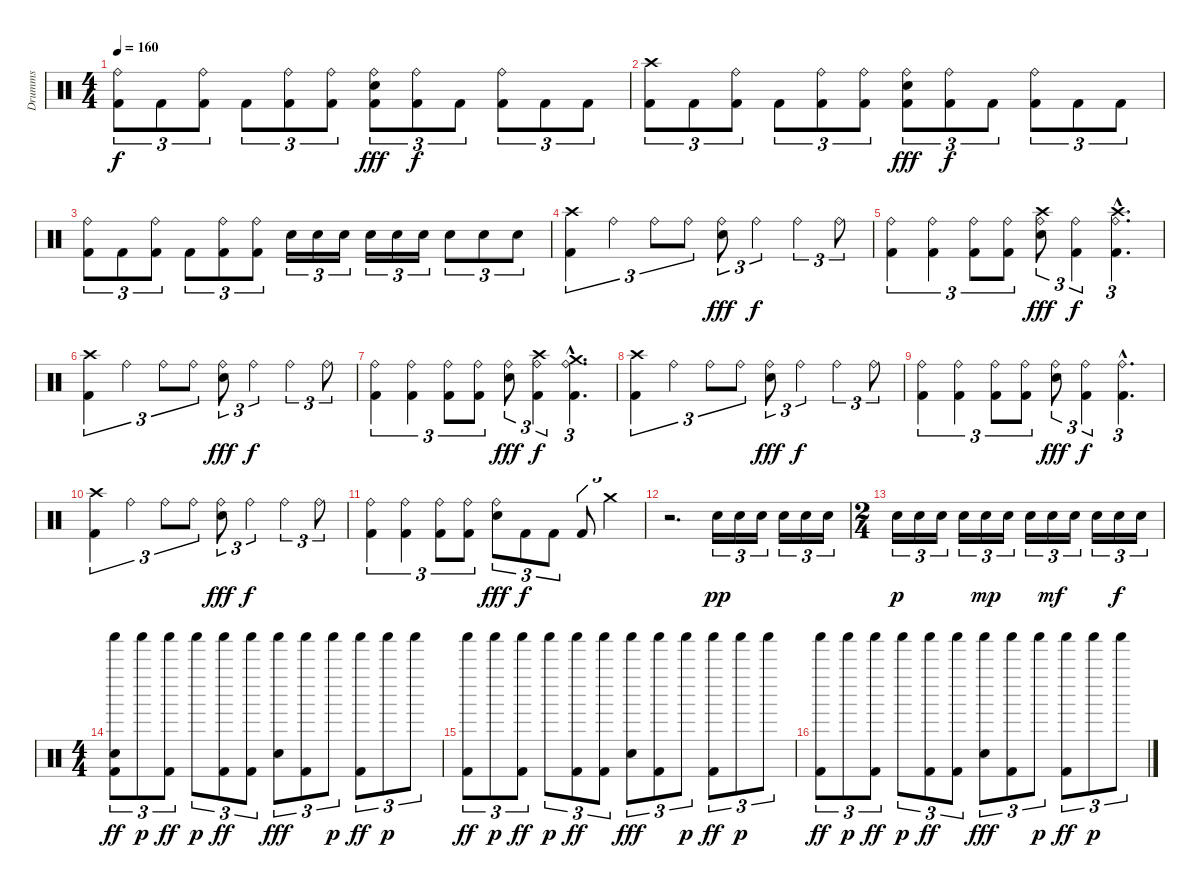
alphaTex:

\track ("Drumms" "Drumms") {instrument percussion}
\staff {score}
\articulation defaults
\ts (4 4)
\tempo 160
\clef neutral
\ks c
("Kick (hit) 2" "Ride (bell)").8{tu (3 2) dy f} "Kick (hit) 2".8{tu (3 2)} ("Kick (hit) 2" "Ride (bell)").8{tu (3 2)} "Kick (hit) 2".8{tu (3 2)} ("Kick (hit) 2" "Ride (bell)").8{tu (3 2)} ("Kick (hit) 2" "Ride (bell)").8{tu (3 2)} ("Snare (hit) 2" "Kick (hit) 2" "Ride (bell)").8{tu (3 2) dy fff} ("Kick (hit) 2" "Ride (bell)").8{tu (3 2) dy f} "Kick (hit) 2".8{tu (3 2)} ("Kick (hit) 2" "Ride (bell)").8{tu (3 2)} "Kick (hit) 2".8{tu (3 2)} "Kick (hit) 2".8{tu (3 2)} |
("Kick (hit) 2" "Crash high (hit)").8{tu (3 2)} "Kick (hit) 2".8{tu (3 2)} ("Kick (hit) 2" "Ride (bell)").8{tu (3 2)} "Kick (hit) 2".8{tu (3 2)} ("Kick (hit) 2" "Ride (bell)").8{tu (3 2)} ("Kick (hit) 2" "Ride (bell)").8{tu (3 2)} ("Snare (hit) 2" "Kick (hit) 2" "Ride (bell)").8{tu (3 2) dy fff} ("Kick (hit) 2" "Ride (bell)").8{tu (3 2) dy f} "Kick (hit) 2".8{tu (3 2)} ("Kick (hit) 2" "Ride (bell)").8{tu (3 2)} "Kick (hit) 2".8{tu (3 2)} "Kick (hit) 2".8{tu (3 2)} |
("Kick (hit) 2" "Ride (bell)").8{tu (3 2)} "Kick (hit) 2".8{tu (3 2)} ("Kick (hit) 2" "Ride (bell)").8{tu (3 2)} "Kick (hit) 2".8{tu (3 2)} ("Kick (hit) 2" "Ride (bell)").8{tu (3 2)} ("Kick (hit) 2" "Ride (bell)").8{tu (3 2)} "Snare (hit) 2".16{tu (3 2)} "Snare (hit) 2".16{tu (3 2)} "Snare (hit) 2".16{tu (3 2)} "Snare (hit) 2".16{tu (3 2)} "Snare (hit) 2".16{tu (3 2)} "Snare (hit) 2".16{tu (3 2)} "Snare (hit) 2".8{tu (3 2)} "Snare (hit) 2".8{tu (3 2)} "Snare (hit) 2".8{tu (3 2)} |
\section ("" "")
("Crash high (hit)" "Kick (hit) 2").4{tu (3 2)} "Ride (bell)".4{tu (3 2)} "Ride (bell)".8{tu (3 2)} "Ride (bell)".8{tu (3 2)} ("Ride (bell)" "Snare (hit) 2").8{tu (3 2) dy fff} "Ride (bell)".4{tu (3 2) dy f} "Ride (bell)".4{tu (3 2)} "Ride (bell)".8{tu (3 2)} |
("Ride (bell)" "Kick (hit) 2").4{tu (3 2)} ("Ride (bell)" "Kick (hit) 2").4{tu (3 2)} ("Ride (bell)" "Kick (hit) 2").8{tu (3 2)} ("Ride (bell)" "Kick (hit) 2").8{tu (3 2)} ("Ride (bell)" "Snare (hit) 2" "Crash high (hit)").8{tu (3 2) dy fff} ("Ride (bell)" "Kick (hit) 2").4{tu (3 2) dy f} ("Ride (bell)" "Kick (hit) 2"{hac} "Crash high (hit)"{hac}).4{d tu (3 2)} |
("Crash high (hit)" "Kick (hit) 2").4{tu (3 2)} "Ride (bell)".4{tu (3 2)} "Ride (bell)".8{tu (3 2)} "Ride (bell)".8{tu (3 2)} ("Ride (bell)" "Snare (hit) 2").8{tu (3 2) dy fff} "Ride (bell)".4{tu (3 2) dy f} "Ride (bell)".4{tu (3 2)} "Ride (bell)".8{tu (3 2)} |
("Ride (bell)" "Kick (hit) 2").4{tu (3 2)} ("Ride (bell)" "Kick (hit) 2").4{tu (3 2)} ("Ride (bell)" "Kick (hit) 2").8{tu (3 2)} ("Ride (bell)" "Kick (hit) 2").8{tu (3 2)} ("Ride (bell)" "Snare (hit) 2").8{tu (3 2) dy fff} ("Ride (bell)" "Kick (hit) 2" "Crash high (hit)").4{tu (3 2) dy f} ("Ride (bell)" "Kick (hit) 2"{hac} "Crash medium (hit)"{hac}).4{d tu (3 2)} |
("Crash high (hit)" "Kick (hit) 2").4{tu (3 2)} "Ride (bell)".4{tu (3 2)} "Ride (bell)".8{tu (3 2)} "Ride (bell)".8{tu (3 2)} ("Ride (bell)" "Snare (hit) 2").8{tu (3 2) dy fff} "Ride (bell)".4{tu (3 2) dy f} "Ride (bell)".4{tu (3 2)} "Ride (bell)".8{tu (3 2)} |
("Ride (bell)" "Kick (hit) 2").4{tu (3 2)} ("Ride (bell)" "Kick (hit) 2").4{tu (3 2)} ("Ride (bell)" "Kick (hit) 2").8{tu (3 2)} ("Ride (bell)" "Kick (hit) 2").8{tu (3 2)} ("Ride (bell)" "Snare (hit) 2").8{tu (3 2) dy fff} ("Ride (bell)" "Kick (hit) 2").4{tu (3 2) dy f} ("Ride (bell)" "Kick (hit) 2"{hac}).4{d tu (3 2)} |
("Crash high (hit)" "Kick (hit) 2").4{tu (3 2)} "Ride (bell)".4{tu (3 2)} "Ride (bell)".8{tu (3 2)} "Ride (bell)".8{tu (3 2)} ("Ride (bell)" "Snare (hit) 2").8{tu (3 2) dy fff} "Ride (bell)".4{tu (3 2) dy f} "Ride (bell)".4{tu (3 2)} "Ride (bell)".8{tu (3 2)} |
("Ride (bell)" "Kick (hit) 2").4{tu (3 2)} ("Ride (bell)" "Kick (hit) 2").4{tu (3 2)} ("Ride (bell)" "Kick (hit) 2").8{tu (3 2)} ("Ride (bell)" "Kick (hit) 2").8{tu (3 2)} ("Ride (bell)" "Snare (hit) 2").8{tu (3 2) dy fff} "Kick (hit) 2".8{tu (3 2) dy f} "Kick (hit) 2".8{tu (3 2)} "Kick (hit) 2".8{tu (3 2)} "Crash medium (hit)".4{tu (3 2)} |
r.2{d} "Snare (hit) 2".16{tu (3 2) dy pp} "Snare (hit) 2".16{tu (3 2)} "Snare (hit) 2".16{tu (3 2)} "Snare (hit) 2".16{tu (3 2)} "Snare (hit) 2".16{tu (3 2)} "Snare (hit) 2".16{tu (3 2)} |
\ts (2 4)
"Snare (hit) 2".16{tu (3 2) dy p} "Snare (hit) 2".16{tu (3 2)} "Snare (hit) 2".16{tu (3 2)} "Snare (hit) 2".16{tu (3 2)} "Snare (hit) 2".16{tu (3 2) dy mp} "Snare (hit) 2".16{tu (3 2)} "Snare (hit) 2".16{tu (3 2)} "Snare (hit) 2".16{tu (3 2) dy mf} "Snare (hit) 2".16{tu (3 2)} "Snare (hit) 2".16{tu (3 2)} "Snare (hit) 2".16{tu (3 2) dy f} "Snare (hit) 2".16{tu (3 2)} |
\ts (4 4)
\section ("" "")
("Shaker (hit)" "Snare (hit) 2" "Kick (hit) 2").8{tu (3 2) dy ff} "Shaker (hit)".8{tu (3 2) dy p} ("Shaker (hit)" "Kick (hit) 2").8{tu (3 2) dy ff} "Shaker (hit)".8{tu (3 2) dy p} ("Shaker (hit)" "Kick (hit) 2").8{tu (3 2) dy ff} ("Shaker (hit)" "Kick (hit) 2").8{tu (3 2)} ("Shaker (hit)" "Snare (hit) 2").8{tu (3 2) dy fff} ("Shaker (hit)" "Kick (hit) 2").8{tu (3 2)} "Shaker (hit)".8{tu (3 2) dy p} ("Shaker (hit)" "Kick (hit) 2").8{tu (3 2) dy ff} "Shaker (hit)".8{tu (3 2) dy p} "Shaker (hit)".8{tu (3 2)} |
("Shaker (hit)" "Kick (hit) 2").8{tu (3 2) dy ff} "Shaker (hit)".8{tu (3 2) dy p} ("Shaker (hit)" "Kick (hit) 2").8{tu (3 2) dy ff} "Shaker (hit)".8{tu (3 2) dy p} ("Shaker (hit)" "Kick (hit) 2").8{tu (3 2) dy ff} ("Shaker (hit)" "Kick (hit) 2").8{tu (3 2)} ("Shaker (hit)" "Snare (hit) 2").8{tu (3 2) dy fff} ("Shaker (hit)" "Kick (hit) 2").8{tu (3 2)} "Shaker (hit)".8{tu (3 2) dy p} ("Shaker (hit)" "Kick (hit) 2").8{tu (3 2) dy ff} "Shaker (hit)".8{tu (3 2) dy p} "Shaker (hit)".8{tu (3 2)} |
("Shaker (hit)" "Kick (hit) 2").8{tu (3 2) dy ff} "Shaker (hit)".8{tu (3 2) dy p} ("Shaker (hit)" "Kick (hit) 2").8{tu (3 2) dy ff} "Shaker (hit)".8{tu (3 2) dy p} ("Shaker (hit)" "Kick (hit) 2").8{tu (3 2) dy ff} ("Shaker (hit)" "Kick (hit) 2").8{tu (3 2)} ("Shaker (hit)" "Snare (hit) 2").8{tu (3 2) dy fff} ("Shaker (hit)" "Kick (hit) 2").8{tu (3 2)} "Shaker (hit)".8{tu (3 2) dy p} ("Shaker (hit)" "Kick (hit) 2").8{tu (3 2) dy ff} "Shaker (hit)".8{tu (3 2) dy p} "Shaker (hit)".8{tu (3 2)}
